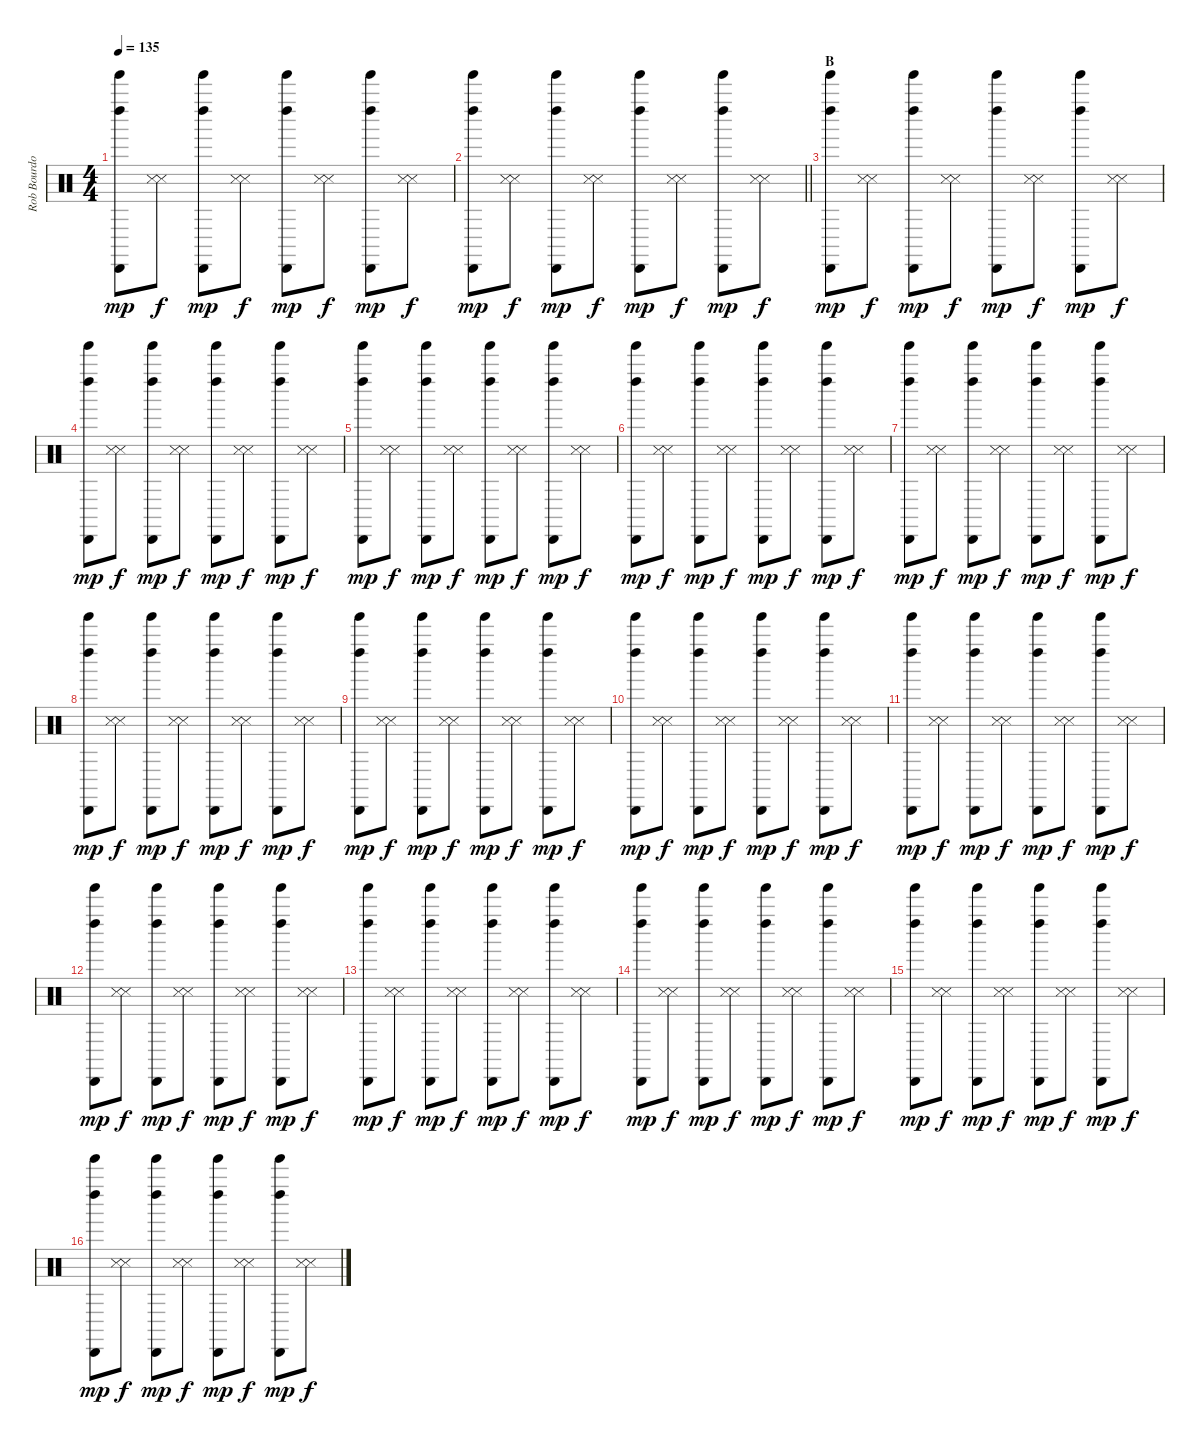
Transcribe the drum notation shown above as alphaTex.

\track ("Rob Bourdon - Beats & Drums" "Rob Bourdo") {instrument percussion}
\staff {score}
\articulation defaults
\ts (4 4)
\tempo 135
\clef neutral
\ks c
("Tinkle Bell (hit)" "Cabasa (hit)" "Left Maraca (hit)").8{dy mp} ("Metronome (hit)" "Snare (side stick) 3").8{dy f} ("Tinkle Bell (hit)" "Cabasa (hit)" "Left Maraca (hit)").8{dy mp} ("Metronome (hit)" "Snare (side stick) 3").8{dy f} ("Tinkle Bell (hit)" "Cabasa (hit)" "Left Maraca (hit)").8{dy mp} ("Metronome (hit)" "Snare (side stick) 3").8{dy f} ("Tinkle Bell (hit)" "Cabasa (hit)" "Left Maraca (hit)").8{dy mp} ("Metronome (hit)" "Snare (side stick) 3").8{dy f} |
\barLineRight lightlight
("Tinkle Bell (hit)" "Cabasa (hit)" "Left Maraca (hit)").8{dy mp} ("Metronome (hit)" "Snare (side stick) 3").8{dy f} ("Tinkle Bell (hit)" "Cabasa (hit)" "Left Maraca (hit)").8{dy mp} ("Metronome (hit)" "Snare (side stick) 3").8{dy f} ("Tinkle Bell (hit)" "Cabasa (hit)" "Left Maraca (hit)").8{dy mp} ("Metronome (hit)" "Snare (side stick) 3").8{dy f} ("Tinkle Bell (hit)" "Cabasa (hit)" "Left Maraca (hit)").8{dy mp} ("Metronome (hit)" "Snare (side stick) 3").8{dy f} |
\section ("" "B")
("Tinkle Bell (hit)" "Cabasa (hit)" "Left Maraca (hit)").8{dy mp} ("Metronome (hit)" "Snare (side stick) 3").8{dy f} ("Tinkle Bell (hit)" "Cabasa (hit)" "Left Maraca (hit)").8{dy mp} ("Metronome (hit)" "Snare (side stick) 3").8{dy f} ("Tinkle Bell (hit)" "Cabasa (hit)" "Left Maraca (hit)").8{dy mp} ("Metronome (hit)" "Snare (side stick) 3").8{dy f} ("Tinkle Bell (hit)" "Cabasa (hit)" "Left Maraca (hit)").8{dy mp} ("Metronome (hit)" "Snare (side stick) 3").8{dy f} |
("Tinkle Bell (hit)" "Cabasa (hit)" "Left Maraca (hit)").8{dy mp} ("Metronome (hit)" "Snare (side stick) 3").8{dy f} ("Tinkle Bell (hit)" "Cabasa (hit)" "Left Maraca (hit)").8{dy mp} ("Metronome (hit)" "Snare (side stick) 3").8{dy f} ("Tinkle Bell (hit)" "Cabasa (hit)" "Left Maraca (hit)").8{dy mp} ("Metronome (hit)" "Snare (side stick) 3").8{dy f} ("Tinkle Bell (hit)" "Cabasa (hit)" "Left Maraca (hit)").8{dy mp} ("Metronome (hit)" "Snare (side stick) 3").8{dy f} |
("Tinkle Bell (hit)" "Cabasa (hit)" "Left Maraca (hit)").8{dy mp} ("Metronome (hit)" "Snare (side stick) 3").8{dy f} ("Tinkle Bell (hit)" "Cabasa (hit)" "Left Maraca (hit)").8{dy mp} ("Metronome (hit)" "Snare (side stick) 3").8{dy f} ("Tinkle Bell (hit)" "Cabasa (hit)" "Left Maraca (hit)").8{dy mp} ("Metronome (hit)" "Snare (side stick) 3").8{dy f} ("Tinkle Bell (hit)" "Cabasa (hit)" "Left Maraca (hit)").8{dy mp} ("Metronome (hit)" "Snare (side stick) 3").8{dy f} |
("Tinkle Bell (hit)" "Cabasa (hit)" "Left Maraca (hit)").8{dy mp} ("Metronome (hit)" "Snare (side stick) 3").8{dy f} ("Tinkle Bell (hit)" "Cabasa (hit)" "Left Maraca (hit)").8{dy mp} ("Metronome (hit)" "Snare (side stick) 3").8{dy f} ("Tinkle Bell (hit)" "Cabasa (hit)" "Left Maraca (hit)").8{dy mp} ("Metronome (hit)" "Snare (side stick) 3").8{dy f} ("Tinkle Bell (hit)" "Cabasa (hit)" "Left Maraca (hit)").8{dy mp} ("Metronome (hit)" "Snare (side stick) 3").8{dy f} |
("Tinkle Bell (hit)" "Cabasa (hit)" "Left Maraca (hit)").8{dy mp} ("Metronome (hit)" "Snare (side stick) 3").8{dy f} ("Tinkle Bell (hit)" "Cabasa (hit)" "Left Maraca (hit)").8{dy mp} ("Metronome (hit)" "Snare (side stick) 3").8{dy f} ("Tinkle Bell (hit)" "Cabasa (hit)" "Left Maraca (hit)").8{dy mp} ("Metronome (hit)" "Snare (side stick) 3").8{dy f} ("Tinkle Bell (hit)" "Cabasa (hit)" "Left Maraca (hit)").8{dy mp} ("Metronome (hit)" "Snare (side stick) 3").8{dy f} |
("Tinkle Bell (hit)" "Cabasa (hit)" "Left Maraca (hit)").8{dy mp} ("Metronome (hit)" "Snare (side stick) 3").8{dy f} ("Tinkle Bell (hit)" "Cabasa (hit)" "Left Maraca (hit)").8{dy mp} ("Metronome (hit)" "Snare (side stick) 3").8{dy f} ("Tinkle Bell (hit)" "Cabasa (hit)" "Left Maraca (hit)").8{dy mp} ("Metronome (hit)" "Snare (side stick) 3").8{dy f} ("Tinkle Bell (hit)" "Cabasa (hit)" "Left Maraca (hit)").8{dy mp} ("Metronome (hit)" "Snare (side stick) 3").8{dy f} |
("Tinkle Bell (hit)" "Cabasa (hit)" "Left Maraca (hit)").8{dy mp} ("Metronome (hit)" "Snare (side stick) 3").8{dy f} ("Tinkle Bell (hit)" "Cabasa (hit)" "Left Maraca (hit)").8{dy mp} ("Metronome (hit)" "Snare (side stick) 3").8{dy f} ("Tinkle Bell (hit)" "Cabasa (hit)" "Left Maraca (hit)").8{dy mp} ("Metronome (hit)" "Snare (side stick) 3").8{dy f} ("Tinkle Bell (hit)" "Cabasa (hit)" "Left Maraca (hit)").8{dy mp} ("Metronome (hit)" "Snare (side stick) 3").8{dy f} |
("Tinkle Bell (hit)" "Cabasa (hit)" "Left Maraca (hit)").8{dy mp} ("Metronome (hit)" "Snare (side stick) 3").8{dy f} ("Tinkle Bell (hit)" "Cabasa (hit)" "Left Maraca (hit)").8{dy mp} ("Metronome (hit)" "Snare (side stick) 3").8{dy f} ("Tinkle Bell (hit)" "Cabasa (hit)" "Left Maraca (hit)").8{dy mp} ("Metronome (hit)" "Snare (side stick) 3").8{dy f} ("Tinkle Bell (hit)" "Cabasa (hit)" "Left Maraca (hit)").8{dy mp} ("Metronome (hit)" "Snare (side stick) 3").8{dy f} |
("Tinkle Bell (hit)" "Cabasa (hit)" "Left Maraca (hit)").8{dy mp} ("Metronome (hit)" "Snare (side stick) 3").8{dy f} ("Tinkle Bell (hit)" "Cabasa (hit)" "Left Maraca (hit)").8{dy mp} ("Metronome (hit)" "Snare (side stick) 3").8{dy f} ("Tinkle Bell (hit)" "Cabasa (hit)" "Left Maraca (hit)").8{dy mp} ("Metronome (hit)" "Snare (side stick) 3").8{dy f} ("Tinkle Bell (hit)" "Cabasa (hit)" "Left Maraca (hit)").8{dy mp} ("Metronome (hit)" "Snare (side stick) 3").8{dy f} |
("Tinkle Bell (hit)" "Cabasa (hit)" "Left Maraca (hit)").8{dy mp} ("Metronome (hit)" "Snare (side stick) 3").8{dy f} ("Tinkle Bell (hit)" "Cabasa (hit)" "Left Maraca (hit)").8{dy mp} ("Metronome (hit)" "Snare (side stick) 3").8{dy f} ("Tinkle Bell (hit)" "Cabasa (hit)" "Left Maraca (hit)").8{dy mp} ("Metronome (hit)" "Snare (side stick) 3").8{dy f} ("Tinkle Bell (hit)" "Cabasa (hit)" "Left Maraca (hit)").8{dy mp} ("Metronome (hit)" "Snare (side stick) 3").8{dy f} |
("Tinkle Bell (hit)" "Cabasa (hit)" "Left Maraca (hit)").8{dy mp} ("Metronome (hit)" "Snare (side stick) 3").8{dy f} ("Tinkle Bell (hit)" "Cabasa (hit)" "Left Maraca (hit)").8{dy mp} ("Metronome (hit)" "Snare (side stick) 3").8{dy f} ("Tinkle Bell (hit)" "Cabasa (hit)" "Left Maraca (hit)").8{dy mp} ("Metronome (hit)" "Snare (side stick) 3").8{dy f} ("Tinkle Bell (hit)" "Cabasa (hit)" "Left Maraca (hit)").8{dy mp} ("Metronome (hit)" "Snare (side stick) 3").8{dy f} |
("Tinkle Bell (hit)" "Cabasa (hit)" "Left Maraca (hit)").8{dy mp} ("Metronome (hit)" "Snare (side stick) 3").8{dy f} ("Tinkle Bell (hit)" "Cabasa (hit)" "Left Maraca (hit)").8{dy mp} ("Metronome (hit)" "Snare (side stick) 3").8{dy f} ("Tinkle Bell (hit)" "Cabasa (hit)" "Left Maraca (hit)").8{dy mp} ("Metronome (hit)" "Snare (side stick) 3").8{dy f} ("Tinkle Bell (hit)" "Cabasa (hit)" "Left Maraca (hit)").8{dy mp} ("Metronome (hit)" "Snare (side stick) 3").8{dy f} |
("Tinkle Bell (hit)" "Cabasa (hit)" "Left Maraca (hit)").8{dy mp} ("Metronome (hit)" "Snare (side stick) 3").8{dy f} ("Tinkle Bell (hit)" "Cabasa (hit)" "Left Maraca (hit)").8{dy mp} ("Metronome (hit)" "Snare (side stick) 3").8{dy f} ("Tinkle Bell (hit)" "Cabasa (hit)" "Left Maraca (hit)").8{dy mp} ("Metronome (hit)" "Snare (side stick) 3").8{dy f} ("Tinkle Bell (hit)" "Cabasa (hit)" "Left Maraca (hit)").8{dy mp} ("Metronome (hit)" "Snare (side stick) 3").8{dy f} |
("Tinkle Bell (hit)" "Cabasa (hit)" "Left Maraca (hit)").8{dy mp} ("Metronome (hit)" "Snare (side stick) 3").8{dy f} ("Tinkle Bell (hit)" "Cabasa (hit)" "Left Maraca (hit)").8{dy mp} ("Metronome (hit)" "Snare (side stick) 3").8{dy f} ("Tinkle Bell (hit)" "Cabasa (hit)" "Left Maraca (hit)").8{dy mp} ("Metronome (hit)" "Snare (side stick) 3").8{dy f} ("Tinkle Bell (hit)" "Cabasa (hit)" "Left Maraca (hit)").8{dy mp} ("Metronome (hit)" "Snare (side stick) 3").8{dy f}
